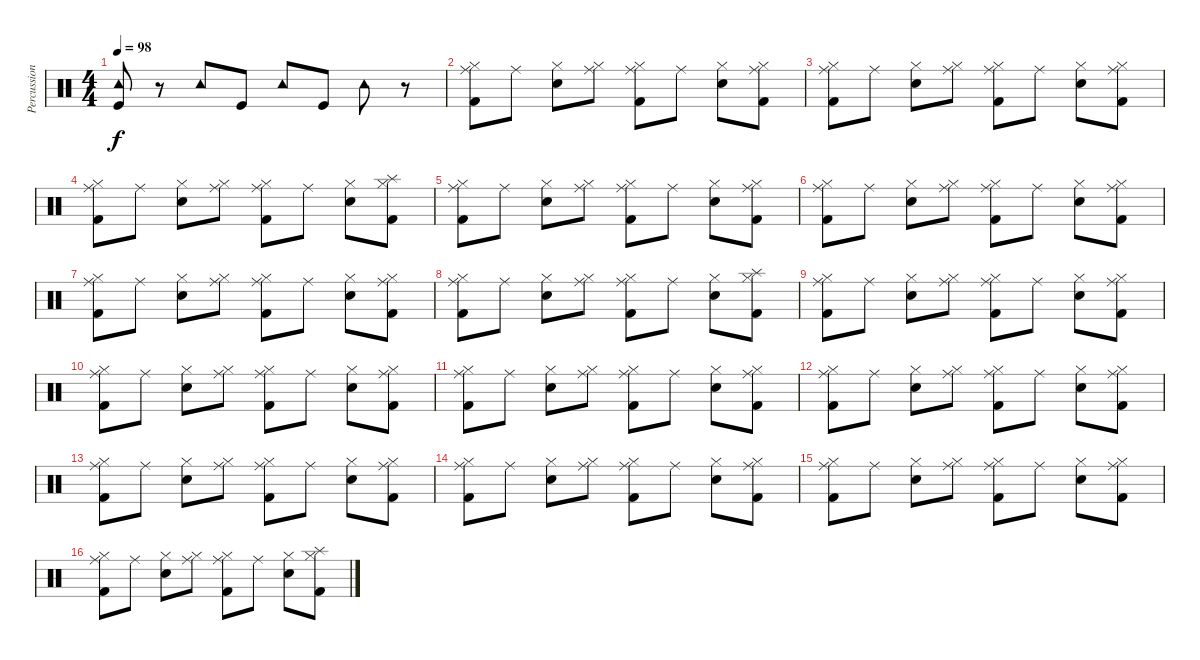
\track ("Percussion" "Percussion") {instrument percussion}
\staff {score}
\articulation defaults
\ts (4 4)
\tempo 98
\clef neutral
\ks c
("Tambourine (hit)" "Kick (hit)").8{dy f} r.8 "Tambourine (hit)".8 "Kick (hit)".8 "Tambourine (hit)".8 "Kick (hit)".8 "Tambourine (hit)".8 r.8 |
("Hi-Hat (closed)" "Kick (hit) 2" "Ride (middle)").8 "Ride (middle)".8 ("Hi-Hat (closed)" "Electric Snare (hit)").8 ("Hi-Hat (closed)" "Ride (middle)").8 ("Hi-Hat (closed)" "Kick (hit) 2" "Ride (middle)").8 "Ride (middle)".8 ("Hi-Hat (closed)" "Electric Snare (hit)").8 ("Hi-Hat (closed)" "Kick (hit) 2" "Ride (middle)").8 |
("Hi-Hat (closed)" "Kick (hit) 2" "Ride (middle)").8 "Ride (middle)".8 ("Hi-Hat (closed)" "Electric Snare (hit)").8 ("Hi-Hat (closed)" "Ride (middle)").8 ("Hi-Hat (closed)" "Kick (hit) 2" "Ride (middle)").8 "Ride (middle)".8 ("Hi-Hat (closed)" "Electric Snare (hit)").8 ("Hi-Hat (closed)" "Kick (hit) 2" "Ride (middle)").8 |
("Hi-Hat (closed)" "Kick (hit) 2" "Ride (middle)").8 "Ride (middle)".8 ("Hi-Hat (closed)" "Electric Snare (hit)").8 ("Hi-Hat (closed)" "Ride (middle)").8 ("Hi-Hat (closed)" "Kick (hit) 2" "Ride (middle)").8 "Ride (middle)".8 ("Hi-Hat (closed)" "Electric Snare (hit)").8 ("Hi-Hat (closed)" "Kick (hit) 2" "Splash (hit)").8 |
("Hi-Hat (closed)" "Kick (hit) 2" "Ride (middle)").8 "Ride (middle)".8 ("Hi-Hat (closed)" "Electric Snare (hit)").8 ("Hi-Hat (closed)" "Ride (middle)").8 ("Hi-Hat (closed)" "Kick (hit) 2" "Ride (middle)").8 "Ride (middle)".8 ("Hi-Hat (closed)" "Electric Snare (hit)").8 ("Hi-Hat (closed)" "Kick (hit) 2" "Ride (middle)").8 |
("Hi-Hat (closed)" "Kick (hit) 2" "Ride (middle)").8 "Ride (middle)".8 ("Hi-Hat (closed)" "Electric Snare (hit)").8 ("Hi-Hat (closed)" "Ride (middle)").8 ("Hi-Hat (closed)" "Kick (hit) 2" "Ride (middle)").8 "Ride (middle)".8 ("Hi-Hat (closed)" "Electric Snare (hit)").8 ("Hi-Hat (closed)" "Kick (hit) 2" "Ride (middle)").8 |
("Hi-Hat (closed)" "Kick (hit) 2" "Ride (middle)").8 "Ride (middle)".8 ("Hi-Hat (closed)" "Electric Snare (hit)").8 ("Hi-Hat (closed)" "Ride (middle)").8 ("Hi-Hat (closed)" "Kick (hit) 2" "Ride (middle)").8 "Ride (middle)".8 ("Hi-Hat (closed)" "Electric Snare (hit)").8 ("Hi-Hat (closed)" "Kick (hit) 2" "Ride (middle)").8 |
("Hi-Hat (closed)" "Kick (hit) 2" "Ride (middle)").8 "Ride (middle)".8 ("Hi-Hat (closed)" "Electric Snare (hit)").8 ("Hi-Hat (closed)" "Ride (middle)").8 ("Hi-Hat (closed)" "Kick (hit) 2" "Ride (middle)").8 "Ride (middle)".8 ("Hi-Hat (closed)" "Electric Snare (hit)").8 ("Hi-Hat (closed)" "Kick (hit) 2" "Splash (hit)").8 |
("Hi-Hat (closed)" "Kick (hit) 2" "Ride (middle)").8 "Ride (middle)".8 ("Hi-Hat (closed)" "Electric Snare (hit)").8 ("Hi-Hat (closed)" "Ride (middle)").8 ("Hi-Hat (closed)" "Kick (hit) 2" "Ride (middle)").8 "Ride (middle)".8 ("Hi-Hat (closed)" "Electric Snare (hit)").8 ("Hi-Hat (closed)" "Kick (hit) 2" "Ride (middle)").8 |
("Hi-Hat (closed)" "Kick (hit) 2" "Ride (middle)").8 "Ride (middle)".8 ("Hi-Hat (closed)" "Electric Snare (hit)").8 ("Hi-Hat (closed)" "Ride (middle)").8 ("Hi-Hat (closed)" "Kick (hit) 2" "Ride (middle)").8 "Ride (middle)".8 ("Hi-Hat (closed)" "Electric Snare (hit)").8 ("Hi-Hat (closed)" "Kick (hit) 2" "Ride (middle)").8 |
("Hi-Hat (closed)" "Kick (hit) 2" "Ride (middle)").8 "Ride (middle)".8 ("Hi-Hat (closed)" "Electric Snare (hit)").8 ("Hi-Hat (closed)" "Ride (middle)").8 ("Hi-Hat (closed)" "Kick (hit) 2" "Ride (middle)").8 "Ride (middle)".8 ("Hi-Hat (closed)" "Electric Snare (hit)").8 ("Hi-Hat (closed)" "Kick (hit) 2" "Ride (middle)").8 |
("Hi-Hat (closed)" "Kick (hit) 2" "Ride (middle)").8 "Ride (middle)".8 ("Hi-Hat (closed)" "Electric Snare (hit)").8 ("Hi-Hat (closed)" "Ride (middle)").8 ("Hi-Hat (closed)" "Kick (hit) 2" "Ride (middle)").8 "Ride (middle)".8 ("Hi-Hat (closed)" "Electric Snare (hit)").8 ("Hi-Hat (closed)" "Kick (hit) 2" "Ride (middle)").8 |
("Hi-Hat (closed)" "Kick (hit) 2" "Ride (middle)").8 "Ride (middle)".8 ("Hi-Hat (closed)" "Electric Snare (hit)").8 ("Hi-Hat (closed)" "Ride (middle)").8 ("Hi-Hat (closed)" "Kick (hit) 2" "Ride (middle)").8 "Ride (middle)".8 ("Hi-Hat (closed)" "Electric Snare (hit)").8 ("Hi-Hat (closed)" "Kick (hit) 2" "Ride (middle)").8 |
("Hi-Hat (closed)" "Kick (hit) 2" "Ride (middle)").8 "Ride (middle)".8 ("Hi-Hat (closed)" "Electric Snare (hit)").8 ("Hi-Hat (closed)" "Ride (middle)").8 ("Hi-Hat (closed)" "Kick (hit) 2" "Ride (middle)").8 "Ride (middle)".8 ("Hi-Hat (closed)" "Electric Snare (hit)").8 ("Hi-Hat (closed)" "Kick (hit) 2" "Ride (middle)").8 |
("Hi-Hat (closed)" "Kick (hit) 2" "Ride (middle)").8 "Ride (middle)".8 ("Hi-Hat (closed)" "Electric Snare (hit)").8 ("Hi-Hat (closed)" "Ride (middle)").8 ("Hi-Hat (closed)" "Kick (hit) 2" "Ride (middle)").8 "Ride (middle)".8 ("Hi-Hat (closed)" "Electric Snare (hit)").8 ("Hi-Hat (closed)" "Kick (hit) 2" "Ride (middle)").8 |
("Hi-Hat (closed)" "Kick (hit) 2" "Ride (middle)").8 "Ride (middle)".8 ("Hi-Hat (closed)" "Electric Snare (hit)").8 ("Hi-Hat (closed)" "Ride (middle)").8 ("Hi-Hat (closed)" "Kick (hit) 2" "Ride (middle)").8 "Ride (middle)".8 ("Hi-Hat (closed)" "Electric Snare (hit)").8 ("Hi-Hat (closed)" "Kick (hit) 2" "Splash (hit)").8
